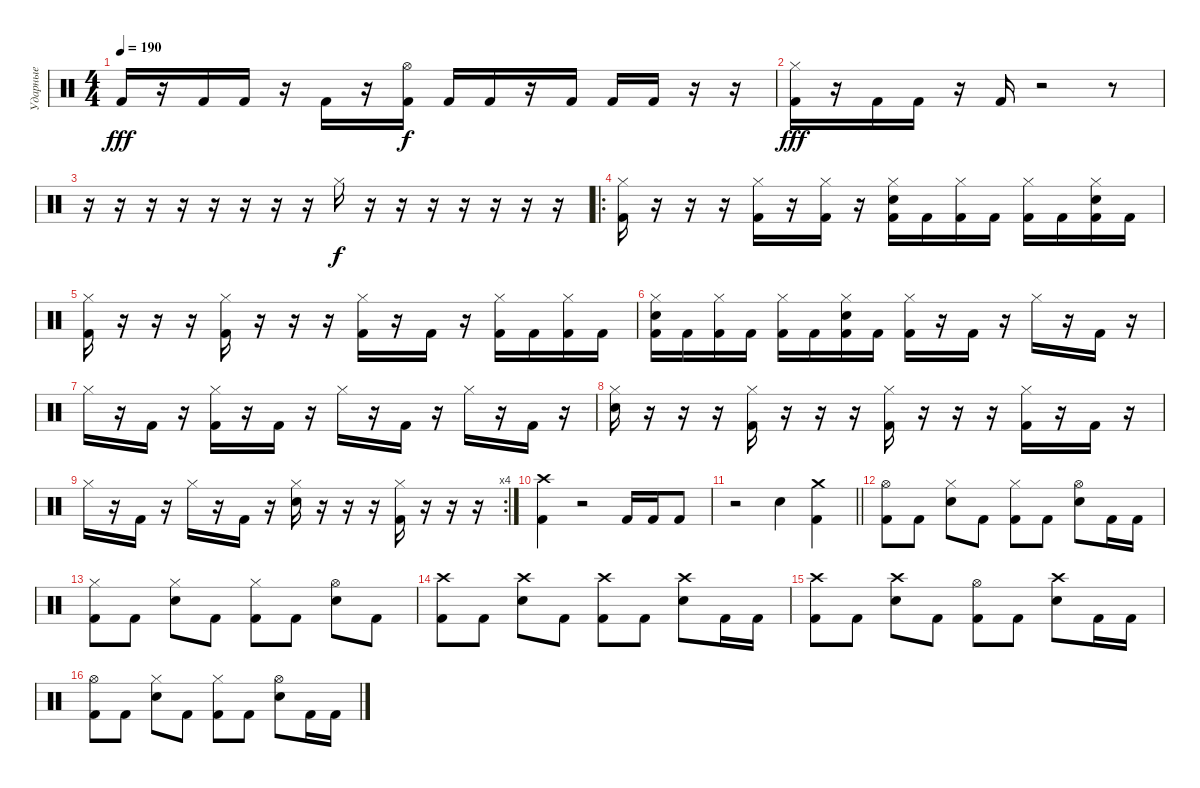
\track ("Ударные" "Ударные") {instrument percussion}
\staff {score}
\articulation defaults
\ts (4 4)
\tempo 190
\clef neutral
\ks c "Kick (hit) 2".16{dy fff}
r.16 "Kick (hit) 2".16 "Kick (hit) 2".16 r.16 "Kick (hit) 2".16 r.16 ("Hi-Hat (open)" "Kick (hit) 2").16{dy f} "Kick (hit) 2".16 "Kick (hit) 2".16 r.16 "Kick (hit) 2".16 "Kick (hit) 2".16 "Kick (hit) 2".16 r.16 r.16 |
("Hi-Hat (closed)" "Kick (hit) 2").16{dy fff} r.16 "Kick (hit) 2".16 "Kick (hit) 2".16 r.16 "Kick (hit) 2".16 r.2 r.8 |
r.16 r.16 r.16 r.16 r.16 r.16 r.16 r.16 "Hi-Hat (closed)".16{dy f} r.16 r.16 r.16 r.16 r.16 r.16 r.16 |
\ro
("Hi-Hat (closed)" "Kick (hit) 2").16 r.16 r.16 r.16 ("Hi-Hat (closed)" "Kick (hit) 2").16 r.16 ("Hi-Hat (closed)" "Kick (hit) 2").16 r.16 ("Hi-Hat (closed)" "Snare (hit) 2" "Kick (hit) 2").16 "Kick (hit) 2".16 ("Hi-Hat (closed)" "Kick (hit) 2").16 "Kick (hit) 2".16 ("Hi-Hat (closed)" "Kick (hit) 2").16 "Kick (hit) 2".16 ("Hi-Hat (closed)" "Snare (hit) 2" "Kick (hit) 2").16 "Kick (hit) 2".16 |
("Hi-Hat (closed)" "Kick (hit) 2").16 r.16 r.16 r.16 ("Hi-Hat (closed)" "Kick (hit) 2").16 r.16 r.16 r.16 ("Hi-Hat (closed)" "Kick (hit) 2").16 r.16 "Kick (hit) 2".16 r.16 ("Hi-Hat (closed)" "Kick (hit) 2").16 "Kick (hit) 2".16 ("Hi-Hat (closed)" "Kick (hit) 2").16 "Kick (hit) 2".16 |
("Hi-Hat (closed)" "Snare (hit) 2" "Kick (hit) 2").16 "Kick (hit) 2".16 ("Hi-Hat (closed)" "Kick (hit) 2").16 "Kick (hit) 2".16 ("Hi-Hat (closed)" "Kick (hit) 2").16 "Kick (hit) 2".16 ("Hi-Hat (closed)" "Snare (hit) 2" "Kick (hit) 2").16 "Kick (hit) 2".16 ("Hi-Hat (closed)" "Kick (hit) 2").16 r.16 "Kick (hit) 2".16 r.16 "Hi-Hat (closed)".16 r.16 "Kick (hit) 2".16 r.16 |
"Hi-Hat (closed)".16 r.16 "Kick (hit) 2".16 r.16 ("Hi-Hat (closed)" "Kick (hit) 2").16 r.16 "Kick (hit) 2".16 r.16 "Hi-Hat (closed)".16 r.16 "Kick (hit) 2".16 r.16 "Hi-Hat (closed)".16 r.16 "Kick (hit) 2".16 r.16 |
("Hi-Hat (closed)" "Snare (hit) 2").16 r.16 r.16 r.16 ("Hi-Hat (closed)" "Kick (hit) 2").16 r.16 r.16 r.16 ("Hi-Hat (closed)" "Kick (hit) 2").16 r.16 r.16 r.16 ("Hi-Hat (closed)" "Kick (hit) 2").16 r.16 "Kick (hit) 2".16 r.16 |
\rc 4 "Hi-Hat (closed)".16
r.16 "Kick (hit) 2".16 r.16 "Hi-Hat (closed)".16 r.16 "Kick (hit) 2".16 r.16 ("Hi-Hat (closed)" "Snare (hit) 2").16 r.16 r.16 r.16 ("Hi-Hat (closed)" "Kick (hit) 2").16 r.16 r.16 r.16 |
("Crash high (hit)" "Kick (hit) 2").4 r.2 "Kick (hit) 2".16 "Kick (hit) 2".16 "Kick (hit) 2".8 |
\barLineRight lightlight
r.2 "Snare (hit) 2".4 ("Crash medium (hit)" "Kick (hit) 2").4 |
("Hi-Hat (open)" "Kick (hit) 2").8 "Kick (hit) 2".8 ("Hi-Hat (closed)" "Snare (hit) 2").8 "Kick (hit) 2".8 ("Hi-Hat (closed)" "Kick (hit) 2").8 "Kick (hit) 2".8 ("Hi-Hat (open)" "Snare (hit) 2").8 "Kick (hit) 2".16 "Kick (hit) 2".16 |
("Hi-Hat (closed)" "Kick (hit) 2").8 "Kick (hit) 2".8 ("Hi-Hat (closed)" "Snare (hit) 2").8 "Kick (hit) 2".8 ("Hi-Hat (closed)" "Kick (hit) 2").8 "Kick (hit) 2".8 ("Hi-Hat (open)" "Snare (hit) 2").8 "Kick (hit) 2".8 |
("Crash high (hit)" "Kick (hit) 2").8 "Kick (hit) 2".8 ("Crash high (hit)" "Snare (hit) 2").8 "Kick (hit) 2".8 ("Crash high (hit)" "Kick (hit) 2").8 "Kick (hit) 2".8 ("Crash high (hit)" "Snare (hit) 2").8 "Kick (hit) 2".16 "Kick (hit) 2".16 |
("Crash high (hit)" "Kick (hit) 2").8 "Kick (hit) 2".8 ("Crash high (hit)" "Snare (hit) 2").8 "Kick (hit) 2".8 ("Hi-Hat (open)" "Kick (hit) 2").8 "Kick (hit) 2".8 ("Crash high (hit)" "Snare (hit) 2").8 "Kick (hit) 2".16 "Kick (hit) 2".16 |
("Hi-Hat (open)" "Kick (hit) 2").8 "Kick (hit) 2".8 ("Hi-Hat (closed)" "Snare (hit) 2").8 "Kick (hit) 2".8 ("Hi-Hat (closed)" "Kick (hit) 2").8 "Kick (hit) 2".8 ("Hi-Hat (open)" "Snare (hit) 2").8 "Kick (hit) 2".16 "Kick (hit) 2".16
